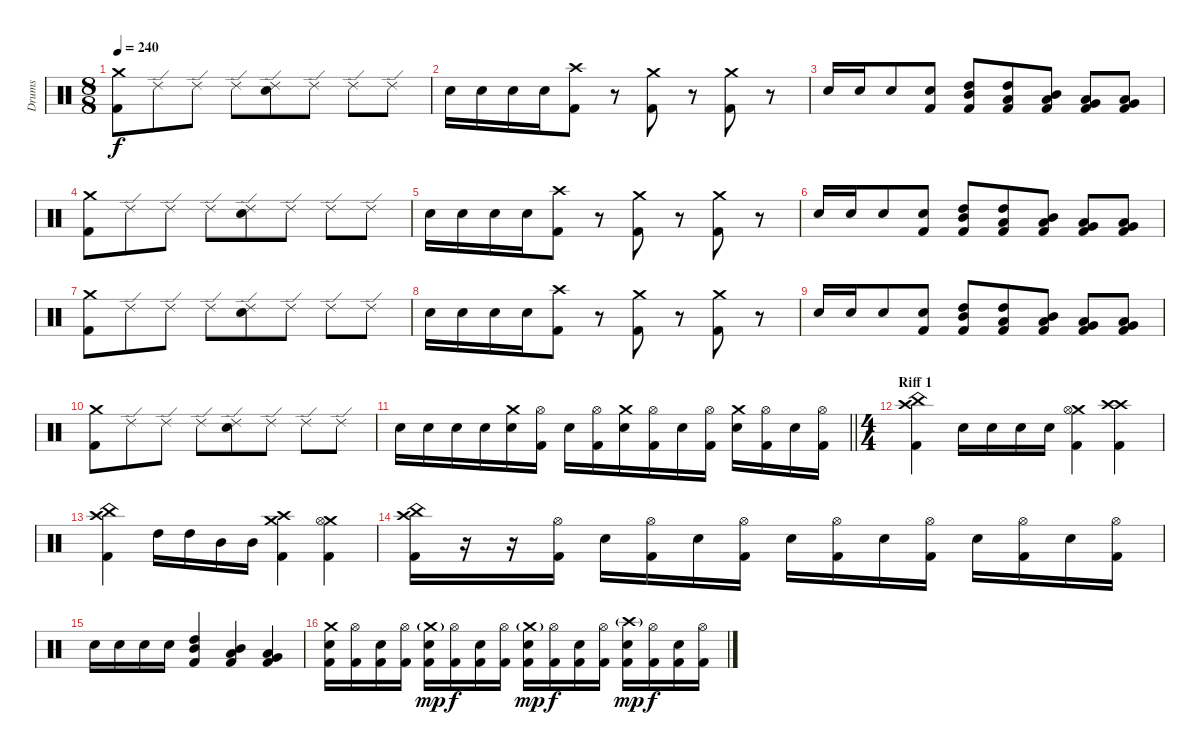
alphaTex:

\track ("Drums" "Drums") {instrument percussion}
\staff {score}
\articulation defaults
\ts (8 8)
\tempo 240
\clef neutral
\ks c
("Crash medium (hit)" "Kick (hit) 2").8{dy f} "Ride (edge) 2".8 "Ride (edge) 2".8 "Ride (edge) 2".8 ("Ride (edge) 2" "Electric Snare (hit)").8 "Ride (edge) 2".8 "Ride (edge) 2".8 "Ride (edge) 2".8 |
"Electric Snare (hit)".16 "Electric Snare (hit)".16 "Electric Snare (hit)".16 "Electric Snare (hit)".16 ("Crash high (hit)" "Kick (hit) 2").8 r.8 ("Crash medium (hit)" "Kick (hit) 2").8 r.8 ("Crash medium (hit)" "Kick (hit) 2").8 r.8 |
"Electric Snare (hit)".16 "Electric Snare (hit)".16 "Electric Snare (hit)".8 ("Electric Snare (hit)" "Kick (hit) 2").8 ("Mid Tom (hit)" "High Tom (hit)" "Kick (hit) 2").8 ("Low Tom (hit)" "High Tom (hit)" "Kick (hit) 2").8 ("Low Tom (hit)" "Mid Tom (hit)" "Kick (hit) 2").8 ("Very Low Tom (hit)" "Low Tom (hit)" "Kick (hit) 2").8 ("Low Floor Tom (hit)" "Very Low Tom (hit)" "Kick (hit) 2").8 |
("Crash medium (hit)" "Kick (hit) 2").8 "Ride (edge) 2".8 "Ride (edge) 2".8 "Ride (edge) 2".8 ("Ride (edge) 2" "Electric Snare (hit)").8 "Ride (edge) 2".8 "Ride (edge) 2".8 "Ride (edge) 2".8 |
"Electric Snare (hit)".16 "Electric Snare (hit)".16 "Electric Snare (hit)".16 "Electric Snare (hit)".16 ("Crash high (hit)" "Kick (hit) 2").8 r.8 ("Crash medium (hit)" "Kick (hit) 2").8 r.8 ("Crash medium (hit)" "Kick (hit) 2").8 r.8 |
"Electric Snare (hit)".16 "Electric Snare (hit)".16 "Electric Snare (hit)".8 ("Electric Snare (hit)" "Kick (hit) 2").8 ("Mid Tom (hit)" "High Tom (hit)" "Kick (hit) 2").8 ("Low Tom (hit)" "High Tom (hit)" "Kick (hit) 2").8 ("Low Tom (hit)" "Mid Tom (hit)" "Kick (hit) 2").8 ("Very Low Tom (hit)" "Low Tom (hit)" "Kick (hit) 2").8 ("Low Floor Tom (hit)" "Very Low Tom (hit)" "Kick (hit) 2").8 |
("Crash medium (hit)" "Kick (hit) 2").8 "Ride (edge) 2".8 "Ride (edge) 2".8 "Ride (edge) 2".8 ("Ride (edge) 2" "Electric Snare (hit)").8 "Ride (edge) 2".8 "Ride (edge) 2".8 "Ride (edge) 2".8 |
"Electric Snare (hit)".16 "Electric Snare (hit)".16 "Electric Snare (hit)".16 "Electric Snare (hit)".16 ("Crash high (hit)" "Kick (hit) 2").8 r.8 ("Crash medium (hit)" "Kick (hit) 2").8 r.8 ("Crash medium (hit)" "Kick (hit) 2").8 r.8 |
"Electric Snare (hit)".16 "Electric Snare (hit)".16 "Electric Snare (hit)".8 ("Electric Snare (hit)" "Kick (hit) 2").8 ("Mid Tom (hit)" "High Tom (hit)" "Kick (hit) 2").8 ("Low Tom (hit)" "High Tom (hit)" "Kick (hit) 2").8 ("Low Tom (hit)" "Mid Tom (hit)" "Kick (hit) 2").8 ("Very Low Tom (hit)" "Low Tom (hit)" "Kick (hit) 2").8 ("Low Floor Tom (hit)" "Very Low Tom (hit)" "Kick (hit) 2").8 |
("Crash medium (hit)" "Kick (hit) 2").8 "Ride (edge) 2".8 "Ride (edge) 2".8 "Ride (edge) 2".8 ("Ride (edge) 2" "Electric Snare (hit)").8 "Ride (edge) 2".8 "Ride (edge) 2".8 "Ride (edge) 2".8 |
\barLineRight lightlight "Electric Snare (hit)".16 "Electric Snare (hit)".16 "Electric Snare (hit)".16 "Electric Snare (hit)".16
("Crash medium (hit)" "Electric Snare (hit)").16 ("Hi-Hat (open)" "Kick (hit) 2").16 "Electric Snare (hit)".16 ("Hi-Hat (open)" "Kick (hit) 2").16 ("Crash medium (hit)" "Electric Snare (hit)").16 ("Hi-Hat (open)" "Kick (hit) 2").16 "Electric Snare (hit)".16 ("Hi-Hat (open)" "Kick (hit) 2").16 ("Crash medium (hit)" "Electric Snare (hit)").16 ("Hi-Hat (open)" "Kick (hit) 2").16 "Electric Snare (hit)".16 ("Hi-Hat (open)" "Kick (hit) 2").16 |
\ts (4 4)
\section ("" "Riff 1")
("China (hit)" "Crash high (hit)" "Kick (hit) 2").4 "Electric Snare (hit)".16 "Electric Snare (hit)".16 "Electric Snare (hit)".16 "Electric Snare (hit)".16 ("Crash medium (hit)" "Hi-Hat (open)" "Kick (hit) 2").4 ("Crash high (hit)" "Crash high (hit)" "Kick (hit) 2").4 |
("Crash high (hit)" "China (hit)" "Kick (hit) 2").4 "High Tom (hit)".16 "High Tom (hit)".16 "Mid Tom (hit)".16 "Mid Tom (hit)".16 ("Crash medium (hit)" "Crash high (hit)" "Kick (hit) 2").4 ("Crash medium (hit)" "Hi-Hat (open)" "Kick (hit) 2").4 |
("Crash high (hit)" "China (hit)" "Kick (hit) 2").16 r.16 r.16 ("Hi-Hat (open)" "Kick (hit) 2").16 "Electric Snare (hit)".16 ("Hi-Hat (open)" "Kick (hit) 2").16 "Electric Snare (hit)".16 ("Hi-Hat (open)" "Kick (hit) 2").16 "Electric Snare (hit)".16 ("Hi-Hat (open)" "Kick (hit) 2").16 "Electric Snare (hit)".16 ("Hi-Hat (open)" "Kick (hit) 2").16 "Electric Snare (hit)".16 ("Hi-Hat (open)" "Kick (hit) 2").16 "Electric Snare (hit)".16 ("Hi-Hat (open)" "Kick (hit) 2").16 |
"Electric Snare (hit)".16 "Electric Snare (hit)".16 "Electric Snare (hit)".16 "Electric Snare (hit)".16 ("Mid Tom (hit)" "High Tom (hit)" "Kick (hit) 2").4 ("Low Tom (hit)" "Mid Tom (hit)" "Kick (hit) 2").4 ("Very Low Tom (hit)" "Low Tom (hit)" "Kick (hit) 2").4 |
("Crash medium (hit)" "Electric Snare (hit)" "Kick (hit) 2").16 ("Hi-Hat (open)" "Kick (hit) 2").16 ("Electric Snare (hit)" "Kick (hit) 2").16 ("Hi-Hat (open)" "Kick (hit) 2").16 ("Crash medium (hit)"{g} "Electric Snare (hit)" "Kick (hit) 2").16{dy mp} ("Hi-Hat (open)" "Kick (hit) 2").16{dy f} ("Electric Snare (hit)" "Kick (hit) 2").16 ("Hi-Hat (open)" "Kick (hit) 2").16 ("Crash medium (hit)"{g} "Electric Snare (hit)" "Kick (hit) 2").16{dy mp} ("Hi-Hat (open)" "Kick (hit) 2").16{dy f} ("Electric Snare (hit)" "Kick (hit) 2").16 ("Hi-Hat (open)" "Kick (hit) 2").16 ("Crash high (hit)"{g} "Electric Snare (hit)" "Kick (hit) 2").16{dy mp} ("Hi-Hat (open)" "Kick (hit) 2").16{dy f} ("Electric Snare (hit)" "Kick (hit) 2").16 ("Hi-Hat (open)" "Kick (hit) 2").16
